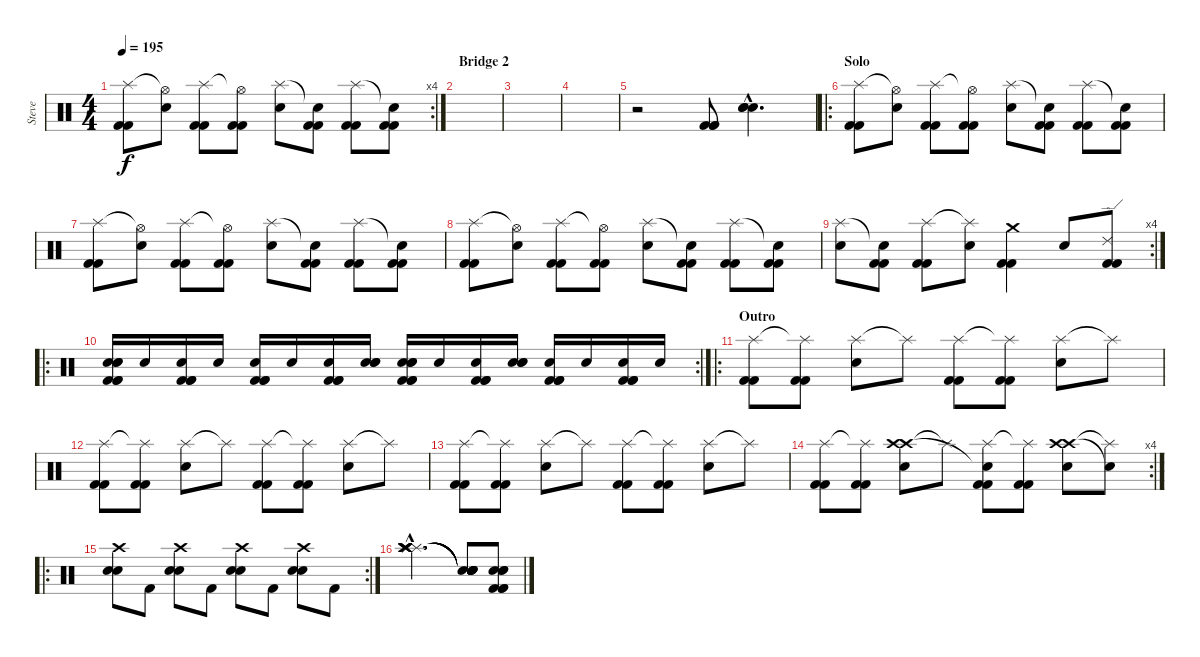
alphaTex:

\track ("Steve" "Steve") {instrument percussion}
\staff {score}
\articulation defaults
\rc 4
\ts (4 4)
\tempo 195
\clef neutral
\ks c
("Splash (hit)" "Kick (hit) 2" "Kick (hit) 2").8{dy f} ("Hi-Hat (open)"{t} "Snare (hit) 2").8 ("Splash (hit)" "Kick (hit) 2" "Kick (hit) 2").8 ("Hi-Hat (open)"{t} "Kick (hit) 2" "Kick (hit) 2").8 ("Splash (hit)" "Snare (hit) 2").8 ("Snare (hit)"{t} "Kick (hit) 2" "Kick (hit) 2").8 ("Splash (hit)" "Kick (hit) 2" "Kick (hit) 2").8 ("Snare (hit)"{t} "Kick (hit) 2" "Kick (hit) 2").8 |
\section ("" "Bridge 2")
|
|
|
r.2 ("Kick (hit) 2" "Kick (hit) 2" "Kick (hit) 2").8 ("Snare (hit) 2"{hac} "Snare (hit) 2"{hac} "Snare (hit) 2"{hac}).4{d} |
\ro
\section ("" "Solo")
("Splash (hit)" "Kick (hit) 2" "Kick (hit) 2").8 ("Hi-Hat (open)"{t} "Snare (hit) 2").8 ("Splash (hit)" "Kick (hit) 2" "Kick (hit) 2").8 ("Hi-Hat (open)"{t} "Kick (hit) 2" "Kick (hit) 2").8 ("Splash (hit)" "Snare (hit) 2").8 ("Snare (hit)"{t} "Kick (hit) 2" "Kick (hit) 2").8 ("Splash (hit)" "Kick (hit) 2" "Kick (hit) 2").8 ("Snare (hit)"{t} "Kick (hit) 2" "Kick (hit) 2").8 |
("Splash (hit)" "Kick (hit) 2" "Kick (hit) 2").8 ("Hi-Hat (open)"{t} "Snare (hit) 2").8 ("Splash (hit)" "Kick (hit) 2" "Kick (hit) 2").8 ("Hi-Hat (open)"{t} "Kick (hit) 2" "Kick (hit) 2").8 ("Splash (hit)" "Snare (hit) 2").8 ("Snare (hit)"{t} "Kick (hit) 2" "Kick (hit) 2").8 ("Splash (hit)" "Kick (hit) 2" "Kick (hit) 2").8 ("Snare (hit)"{t} "Kick (hit) 2" "Kick (hit) 2").8 |
("Splash (hit)" "Kick (hit) 2" "Kick (hit) 2").8 ("Hi-Hat (open)"{t} "Snare (hit) 2").8 ("Splash (hit)" "Kick (hit) 2" "Kick (hit) 2").8 ("Hi-Hat (open)"{t} "Kick (hit) 2" "Kick (hit) 2").8 ("Splash (hit)" "Snare (hit) 2").8 ("Snare (hit)"{t} "Kick (hit) 2" "Kick (hit) 2").8 ("Splash (hit)" "Kick (hit) 2" "Kick (hit) 2").8 ("Snare (hit)"{t} "Kick (hit) 2" "Kick (hit) 2").8 |
\rc 4
("Splash (hit)" "Snare (hit) 2").8 ("Snare (hit)"{t} "Kick (hit) 2" "Kick (hit) 2").8 ("Splash (hit)" "Kick (hit) 2" "Kick (hit) 2").8 ("Splash (hit)"{t} "Snare (hit) 2").8 ("Crash medium (hit)" "Kick (hit) 2" "Kick (hit) 2").4 "Snare (hit) 2".8 ("Ride (edge) 2" "Kick (hit) 2" "Kick (hit) 2").8 |
\ro
\rc 2
("Kick (hit) 2" "Kick (hit) 2" "Kick (hit) 2" "Snare (hit) 2" "Snare (hit) 2" "Snare (hit) 2").16 "Snare (hit) 2".16 ("Kick (hit) 2" "Kick (hit) 2" "Kick (hit) 2" "Snare (hit) 2").16 "Snare (hit) 2".16 ("Kick (hit) 2" "Kick (hit) 2" "Kick (hit) 2" "Snare (hit) 2").16 "Snare (hit) 2".16 ("Kick (hit) 2" "Kick (hit) 2" "Kick (hit) 2" "Snare (hit) 2").16 ("Snare (hit) 2" "Snare (hit) 2" "Snare (hit) 2").16 ("Kick (hit) 2" "Kick (hit) 2" "Kick (hit) 2" "Snare (hit) 2" "Snare (hit) 2" "Snare (hit) 2").16 "Snare (hit) 2".16 ("Kick (hit) 2" "Kick (hit) 2" "Kick (hit) 2" "Snare (hit) 2").16 ("Snare (hit) 2" "Snare (hit) 2" "Snare (hit) 2").16 ("Kick (hit) 2" "Kick (hit) 2" "Kick (hit) 2" "Snare (hit) 2").16 "Snare (hit) 2".16 ("Kick (hit) 2" "Kick (hit) 2" "Kick (hit) 2" "Snare (hit) 2").16 "Snare (hit) 2".16 |
\ro
\section ("" "Outro")
("Splash (hit)" "Kick (hit) 2" "Kick (hit) 2").8 ("Splash (hit)"{t} "Kick (hit) 2" "Kick (hit) 2").8 ("Splash (hit)" "Snare (hit) 2").8 "Splash (hit)"{t}.8 ("Splash (hit)" "Kick (hit) 2" "Kick (hit) 2").8 ("Splash (hit)"{t} "Kick (hit) 2" "Kick (hit) 2").8 ("Splash (hit)" "Snare (hit) 2").8 "Splash (hit)"{t}.8 |
("Splash (hit)" "Kick (hit) 2" "Kick (hit) 2").8 ("Splash (hit)"{t} "Kick (hit) 2" "Kick (hit) 2").8 ("Splash (hit)" "Snare (hit) 2").8 "Splash (hit)"{t}.8 ("Splash (hit)" "Kick (hit) 2" "Kick (hit) 2").8 ("Splash (hit)"{t} "Kick (hit) 2" "Kick (hit) 2").8 ("Splash (hit)" "Snare (hit) 2").8 "Splash (hit)"{t}.8 |
("Splash (hit)" "Kick (hit) 2" "Kick (hit) 2").8 ("Splash (hit)"{t} "Kick (hit) 2" "Kick (hit) 2").8 ("Splash (hit)" "Snare (hit) 2").8 "Splash (hit)"{t}.8 ("Splash (hit)" "Kick (hit) 2" "Kick (hit) 2").8 ("Splash (hit)"{t} "Kick (hit) 2" "Kick (hit) 2").8 ("Splash (hit)" "Snare (hit) 2").8 "Splash (hit)"{t}.8 |
\rc 4
("Splash (hit)" "Kick (hit) 2" "Kick (hit) 2").8 ("Splash (hit)"{t} "Kick (hit) 2" "Kick (hit) 2").8 ("Crash high (hit)" "Crash high (hit)" "Snare (hit) 2").8 "Splash (hit)"{t}.8 ("Splash (hit)" "Snare (hit)"{t} "Kick (hit) 2" "Kick (hit) 2").8 ("Splash (hit)"{t} "Kick (hit) 2" "Kick (hit) 2").8 ("Crash high (hit)" "Crash high (hit)" "Snare (hit) 2").8 ("Splash (hit)"{t} "Snare (hit)"{t}).8 |
\ro
\rc 2
("Crash high (hit)" "Snare (hit) 2" "Snare (hit) 2").8 "Kick (hit) 2".8 ("Crash high (hit)" "Snare (hit) 2" "Snare (hit) 2").8 "Kick (hit) 2".8 ("Crash high (hit)" "Snare (hit) 2" "Snare (hit) 2").8 "Kick (hit) 2".8 ("Crash high (hit)" "Snare (hit) 2" "Snare (hit) 2").8 "Kick (hit) 2".8 |
("Splash (hit)"{hac} "Splash (hit)"{hac} "Splash (hit)"{hac} "Crash high (hit)"{hac} "Crash high (hit)"{hac} "Crash high (hit)"{hac}).2{d} ("Snare (hit)"{t} "Snare (hit)"{t} "Snare (hit)"{t} "Snare (hit)"{t} "Snare (hit)"{t} "Snare (hit)"{t}).8 ("Snare (hit) 2" "Snare (hit) 2" "Snare (hit) 2" "Kick (hit) 2" "Kick (hit) 2" "Kick (hit) 2").8
